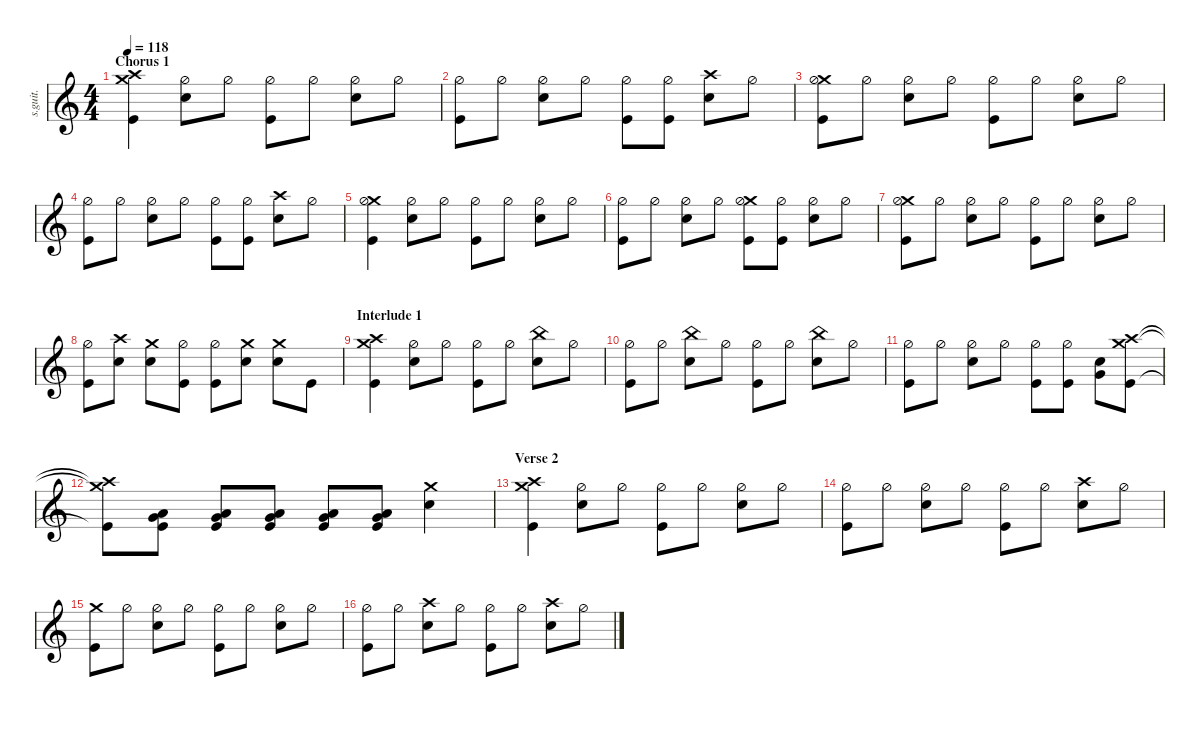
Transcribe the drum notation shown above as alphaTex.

\defaultSystemsLayout 4
\hideDynamics
\bracketExtendMode nobrackets
\track ("Drums [Arin Ilejay]" "s.guit.") {instrument percussion}
\staff {score}
\articulation defaults
\ts (4 4)
\section ("" "Chorus 1")
\tempo 118
\clef g2
\ks c
("Crash high (hit)" "Crash medium (hit)" "Kick (hit)").4{lyrics (0 "") lyrics (1 "") lyrics (2 "") lyrics (3 "") lyrics (4 "") dy f} ("Hi-Hat (half)" "Snare (hit) 2").8{lyrics (0 "") lyrics (1 "") lyrics (2 "") lyrics (3 "") lyrics (4 "")} "Hi-Hat (half)".8{lyrics (0 "") lyrics (1 "") lyrics (2 "") lyrics (3 "") lyrics (4 "")} ("Hi-Hat (half)" "Kick (hit)").8{lyrics (0 "") lyrics (1 "") lyrics (2 "") lyrics (3 "") lyrics (4 "")} "Hi-Hat (half)".8{lyrics (0 "") lyrics (1 "") lyrics (2 "") lyrics (3 "") lyrics (4 "")} ("Hi-Hat (half)" "Snare (hit) 2").8{lyrics (0 "") lyrics (1 "") lyrics (2 "") lyrics (3 "") lyrics (4 "")} "Hi-Hat (half)".8{lyrics (0 "") lyrics (1 "") lyrics (2 "") lyrics (3 "") lyrics (4 "")} |
("Hi-Hat (half)" "Kick (hit)").8{lyrics (0 "") lyrics (1 "") lyrics (2 "") lyrics (3 "") lyrics (4 "")} "Hi-Hat (half)".8{lyrics (0 "") lyrics (1 "") lyrics (2 "") lyrics (3 "") lyrics (4 "")} ("Hi-Hat (half)" "Snare (hit) 2").8{lyrics (0 "") lyrics (1 "") lyrics (2 "") lyrics (3 "") lyrics (4 "")} "Hi-Hat (half)".8{lyrics (0 "") lyrics (1 "") lyrics (2 "") lyrics (3 "") lyrics (4 "")} ("Hi-Hat (half)" "Kick (hit)").8{lyrics (0 "") lyrics (1 "") lyrics (2 "") lyrics (3 "") lyrics (4 "")} ("Hi-Hat (half)" "Kick (hit)").8{lyrics (0 "") lyrics (1 "") lyrics (2 "") lyrics (3 "") lyrics (4 "")} ("Crash high (hit)" "Snare (hit) 2").8{lyrics (0 "") lyrics (1 "") lyrics (2 "") lyrics (3 "") lyrics (4 "")} "Hi-Hat (half)".8{lyrics (0 "") lyrics (1 "") lyrics (2 "") lyrics (3 "") lyrics (4 "")} |
("Crash medium (hit)" "Hi-Hat (half)" "Kick (hit)").8{lyrics (0 "") lyrics (1 "") lyrics (2 "") lyrics (3 "") lyrics (4 "")} "Hi-Hat (half)".8{lyrics (0 "") lyrics (1 "") lyrics (2 "") lyrics (3 "") lyrics (4 "")} ("Hi-Hat (half)" "Snare (hit) 2").8{lyrics (0 "") lyrics (1 "") lyrics (2 "") lyrics (3 "") lyrics (4 "")} "Hi-Hat (half)".8{lyrics (0 "") lyrics (1 "") lyrics (2 "") lyrics (3 "") lyrics (4 "")} ("Hi-Hat (half)" "Kick (hit)").8{lyrics (0 "") lyrics (1 "") lyrics (2 "") lyrics (3 "") lyrics (4 "")} "Hi-Hat (half)".8{lyrics (0 "") lyrics (1 "") lyrics (2 "") lyrics (3 "") lyrics (4 "")} ("Hi-Hat (half)" "Snare (hit) 2").8{lyrics (0 "") lyrics (1 "") lyrics (2 "") lyrics (3 "") lyrics (4 "")} "Hi-Hat (half)".8{lyrics (0 "") lyrics (1 "") lyrics (2 "") lyrics (3 "") lyrics (4 "")} |
("Hi-Hat (half)" "Kick (hit)").8{lyrics (0 "") lyrics (1 "") lyrics (2 "") lyrics (3 "") lyrics (4 "")} "Hi-Hat (half)".8{lyrics (0 "") lyrics (1 "") lyrics (2 "") lyrics (3 "") lyrics (4 "")} ("Hi-Hat (half)" "Snare (hit) 2").8{lyrics (0 "") lyrics (1 "") lyrics (2 "") lyrics (3 "") lyrics (4 "")} "Hi-Hat (half)".8{lyrics (0 "") lyrics (1 "") lyrics (2 "") lyrics (3 "") lyrics (4 "")} ("Hi-Hat (half)" "Kick (hit)").8{lyrics (0 "") lyrics (1 "") lyrics (2 "") lyrics (3 "") lyrics (4 "")} ("Hi-Hat (half)" "Kick (hit)").8{lyrics (0 "") lyrics (1 "") lyrics (2 "") lyrics (3 "") lyrics (4 "")} ("Crash high (hit)" "Snare (hit) 2").8{lyrics (0 "") lyrics (1 "") lyrics (2 "") lyrics (3 "") lyrics (4 "")} "Hi-Hat (half)".8{lyrics (0 "") lyrics (1 "") lyrics (2 "") lyrics (3 "") lyrics (4 "")} |
("Crash medium (hit)" "Hi-Hat (half)" "Kick (hit)").4{lyrics (0 "") lyrics (1 "") lyrics (2 "") lyrics (3 "") lyrics (4 "")} ("Hi-Hat (half)" "Snare (hit) 2").8{lyrics (0 "") lyrics (1 "") lyrics (2 "") lyrics (3 "") lyrics (4 "")} "Hi-Hat (half)".8{lyrics (0 "") lyrics (1 "") lyrics (2 "") lyrics (3 "") lyrics (4 "")} ("Hi-Hat (half)" "Kick (hit)").8{lyrics (0 "") lyrics (1 "") lyrics (2 "") lyrics (3 "") lyrics (4 "")} "Hi-Hat (half)".8{lyrics (0 "") lyrics (1 "") lyrics (2 "") lyrics (3 "") lyrics (4 "")} ("Hi-Hat (half)" "Snare (hit) 2").8{lyrics (0 "") lyrics (1 "") lyrics (2 "") lyrics (3 "") lyrics (4 "")} "Hi-Hat (half)".8{lyrics (0 "") lyrics (1 "") lyrics (2 "") lyrics (3 "") lyrics (4 "")} |
("Hi-Hat (half)" "Kick (hit)").8{lyrics (0 "") lyrics (1 "") lyrics (2 "") lyrics (3 "") lyrics (4 "")} "Hi-Hat (half)".8{lyrics (0 "") lyrics (1 "") lyrics (2 "") lyrics (3 "") lyrics (4 "")} ("Hi-Hat (half)" "Snare (hit) 2").8{lyrics (0 "") lyrics (1 "") lyrics (2 "") lyrics (3 "") lyrics (4 "")} "Hi-Hat (half)".8{lyrics (0 "") lyrics (1 "") lyrics (2 "") lyrics (3 "") lyrics (4 "")} ("Crash medium (hit)" "Hi-Hat (half)" "Kick (hit)").8{lyrics (0 "") lyrics (1 "") lyrics (2 "") lyrics (3 "") lyrics (4 "")} ("Hi-Hat (half)" "Kick (hit)").8{lyrics (0 "") lyrics (1 "") lyrics (2 "") lyrics (3 "") lyrics (4 "")} ("Hi-Hat (half)" "Snare (hit) 2").8{lyrics (0 "") lyrics (1 "") lyrics (2 "") lyrics (3 "") lyrics (4 "")} "Hi-Hat (half)".8{lyrics (0 "") lyrics (1 "") lyrics (2 "") lyrics (3 "") lyrics (4 "")} |
("Crash medium (hit)" "Hi-Hat (half)" "Kick (hit)").8{lyrics (0 "") lyrics (1 "") lyrics (2 "") lyrics (3 "") lyrics (4 "")} "Hi-Hat (half)".8{lyrics (0 "") lyrics (1 "") lyrics (2 "") lyrics (3 "") lyrics (4 "")} ("Hi-Hat (half)" "Snare (hit) 2").8{lyrics (0 "") lyrics (1 "") lyrics (2 "") lyrics (3 "") lyrics (4 "")} "Hi-Hat (half)".8{lyrics (0 "") lyrics (1 "") lyrics (2 "") lyrics (3 "") lyrics (4 "")} ("Hi-Hat (half)" "Kick (hit)").8{lyrics (0 "") lyrics (1 "") lyrics (2 "") lyrics (3 "") lyrics (4 "")} "Hi-Hat (half)".8{lyrics (0 "") lyrics (1 "") lyrics (2 "") lyrics (3 "") lyrics (4 "")} ("Hi-Hat (half)" "Snare (hit) 2").8{lyrics (0 "") lyrics (1 "") lyrics (2 "") lyrics (3 "") lyrics (4 "")} "Hi-Hat (half)".8{lyrics (0 "") lyrics (1 "") lyrics (2 "") lyrics (3 "") lyrics (4 "")} |
("Hi-Hat (half)" "Kick (hit)").8{lyrics (0 "") lyrics (1 "") lyrics (2 "") lyrics (3 "") lyrics (4 "")} ("Crash high (hit)" "Snare (hit) 2").8{lyrics (0 "") lyrics (1 "") lyrics (2 "") lyrics (3 "") lyrics (4 "")} ("Crash medium (hit)" "Snare (hit) 2").8{lyrics (0 "") lyrics (1 "") lyrics (2 "") lyrics (3 "") lyrics (4 "")} ("Hi-Hat (half)" "Kick (hit)").8{lyrics (0 "") lyrics (1 "") lyrics (2 "") lyrics (3 "") lyrics (4 "")} ("Hi-Hat (half)" "Kick (hit)").8{lyrics (0 "") lyrics (1 "") lyrics (2 "") lyrics (3 "") lyrics (4 "")} ("Crash medium (hit)" "Snare (hit) 2").8{lyrics (0 "") lyrics (1 "") lyrics (2 "") lyrics (3 "") lyrics (4 "")} ("Crash medium (hit)" "Snare (hit) 2").8{lyrics (0 "") lyrics (1 "") lyrics (2 "") lyrics (3 "") lyrics (4 "")} "Kick (hit)".8{lyrics (0 "") lyrics (1 "") lyrics (2 "") lyrics (3 "") lyrics (4 "")} |
\section ("" "Interlude 1")
("Crash high (hit)" "Crash medium (hit)" "Kick (hit)").4{lyrics (0 "") lyrics (1 "") lyrics (2 "") lyrics (3 "") lyrics (4 "")} ("Hi-Hat (half)" "Snare (hit) 2").8{lyrics (0 "") lyrics (1 "") lyrics (2 "") lyrics (3 "") lyrics (4 "")} "Hi-Hat (half)".8{lyrics (0 "") lyrics (1 "") lyrics (2 "") lyrics (3 "") lyrics (4 "")} ("Hi-Hat (half)" "Kick (hit)").8{lyrics (0 "") lyrics (1 "") lyrics (2 "") lyrics (3 "") lyrics (4 "")} "Hi-Hat (half)".8{lyrics (0 "") lyrics (1 "") lyrics (2 "") lyrics (3 "") lyrics (4 "")} ("China (hit)" "Snare (hit) 2").8{lyrics (0 "") lyrics (1 "") lyrics (2 "") lyrics (3 "") lyrics (4 "")} "Hi-Hat (half)".8{lyrics (0 "") lyrics (1 "") lyrics (2 "") lyrics (3 "") lyrics (4 "")} |
("Hi-Hat (half)" "Kick (hit)").8{lyrics (0 "") lyrics (1 "") lyrics (2 "") lyrics (3 "") lyrics (4 "")} "Hi-Hat (half)".8{lyrics (0 "") lyrics (1 "") lyrics (2 "") lyrics (3 "") lyrics (4 "")} ("China (hit)" "Snare (hit) 2").8{lyrics (0 "") lyrics (1 "") lyrics (2 "") lyrics (3 "") lyrics (4 "")} "Hi-Hat (half)".8{lyrics (0 "") lyrics (1 "") lyrics (2 "") lyrics (3 "") lyrics (4 "")} ("Hi-Hat (half)" "Kick (hit)").8{lyrics (0 "") lyrics (1 "") lyrics (2 "") lyrics (3 "") lyrics (4 "")} "Hi-Hat (half)".8{lyrics (0 "") lyrics (1 "") lyrics (2 "") lyrics (3 "") lyrics (4 "")} ("China (hit)" "Snare (hit) 2").8{lyrics (0 "") lyrics (1 "") lyrics (2 "") lyrics (3 "") lyrics (4 "")} "Hi-Hat (half)".8{lyrics (0 "") lyrics (1 "") lyrics (2 "") lyrics (3 "") lyrics (4 "")} |
("Hi-Hat (half)" "Kick (hit)").8{lyrics (0 "") lyrics (1 "") lyrics (2 "") lyrics (3 "") lyrics (4 "")} "Hi-Hat (half)".8{lyrics (0 "") lyrics (1 "") lyrics (2 "") lyrics (3 "") lyrics (4 "")} ("Hi-Hat (half)" "Snare (hit) 2").8{lyrics (0 "") lyrics (1 "") lyrics (2 "") lyrics (3 "") lyrics (4 "")} "Hi-Hat (half)".8{lyrics (0 "") lyrics (1 "") lyrics (2 "") lyrics (3 "") lyrics (4 "")} ("Hi-Hat (half)" "Kick (hit)").8{lyrics (0 "") lyrics (1 "") lyrics (2 "") lyrics (3 "") lyrics (4 "")} ("Hi-Hat (half)" "Kick (hit)").8{lyrics (0 "") lyrics (1 "") lyrics (2 "") lyrics (3 "") lyrics (4 "")} ("Snare (hit) 2" "Very Low Tom (hit)").8{lyrics (0 "") lyrics (1 "") lyrics (2 "") lyrics (3 "") lyrics (4 "")} ("Crash high (hit)" "Crash medium (hit)" "Kick (hit)").8{lyrics (0 "") lyrics (1 "") lyrics (2 "") lyrics (3 "") lyrics (4 "")} |
("Crash high (hit)"{t} "Crash medium (hit)"{t} "Kick (hit)"{t}).8{lyrics (0 "") lyrics (1 "") lyrics (2 "") lyrics (3 "") lyrics (4 "")} ("Low Tom (hit)" "Very Low Tom (hit)" "Kick (hit)").8{lyrics (0 "") lyrics (1 "") lyrics (2 "") lyrics (3 "") lyrics (4 "") dy mp} ("Low Tom (hit)" "Very Low Tom (hit)" "Kick (hit)").8{lyrics (0 "") lyrics (1 "") lyrics (2 "") lyrics (3 "") lyrics (4 "")} ("Low Tom (hit)" "Very Low Tom (hit)" "Kick (hit)").8{lyrics (0 "") lyrics (1 "") lyrics (2 "") lyrics (3 "") lyrics (4 "")} ("Low Tom (hit)" "Very Low Tom (hit)" "Kick (hit)").8{lyrics (0 "") lyrics (1 "") lyrics (2 "") lyrics (3 "") lyrics (4 "")} ("Low Tom (hit)" "Very Low Tom (hit)" "Kick (hit)").8{lyrics (0 "") lyrics (1 "") lyrics (2 "") lyrics (3 "") lyrics (4 "")} ("Crash medium (hit)" "Snare (hit) 2").4{lyrics (0 "") lyrics (1 "") lyrics (2 "") lyrics (3 "") lyrics (4 "") dy f} |
\section ("" "Verse 2")
("Crash high (hit)" "Crash medium (hit)" "Kick (hit)").4{lyrics (0 "") lyrics (1 "") lyrics (2 "") lyrics (3 "") lyrics (4 "")} ("Hi-Hat (half)" "Snare (hit) 2").8{lyrics (0 "") lyrics (1 "") lyrics (2 "") lyrics (3 "") lyrics (4 "")} "Hi-Hat (half)".8{lyrics (0 "") lyrics (1 "") lyrics (2 "") lyrics (3 "") lyrics (4 "")} ("Hi-Hat (half)" "Kick (hit)").8{lyrics (0 "") lyrics (1 "") lyrics (2 "") lyrics (3 "") lyrics (4 "")} "Hi-Hat (half)".8{lyrics (0 "") lyrics (1 "") lyrics (2 "") lyrics (3 "") lyrics (4 "")} ("Hi-Hat (half)" "Snare (hit) 2").8{lyrics (0 "") lyrics (1 "") lyrics (2 "") lyrics (3 "") lyrics (4 "")} "Hi-Hat (half)".8{lyrics (0 "") lyrics (1 "") lyrics (2 "") lyrics (3 "") lyrics (4 "")} |
("Hi-Hat (half)" "Kick (hit)").8{lyrics (0 "") lyrics (1 "") lyrics (2 "") lyrics (3 "") lyrics (4 "")} "Hi-Hat (half)".8{lyrics (0 "") lyrics (1 "") lyrics (2 "") lyrics (3 "") lyrics (4 "")} ("Hi-Hat (half)" "Snare (hit) 2").8{lyrics (0 "") lyrics (1 "") lyrics (2 "") lyrics (3 "") lyrics (4 "")} "Hi-Hat (half)".8{lyrics (0 "") lyrics (1 "") lyrics (2 "") lyrics (3 "") lyrics (4 "")} ("Hi-Hat (half)" "Kick (hit)").8{lyrics (0 "") lyrics (1 "") lyrics (2 "") lyrics (3 "") lyrics (4 "")} "Hi-Hat (half)".8{lyrics (0 "") lyrics (1 "") lyrics (2 "") lyrics (3 "") lyrics (4 "")} ("Crash high (hit)" "Snare (hit) 2").8{lyrics (0 "") lyrics (1 "") lyrics (2 "") lyrics (3 "") lyrics (4 "")} "Hi-Hat (half)".8{lyrics (0 "") lyrics (1 "") lyrics (2 "") lyrics (3 "") lyrics (4 "")} |
("Crash medium (hit)" "Kick (hit)").8{lyrics (0 "") lyrics (1 "") lyrics (2 "") lyrics (3 "") lyrics (4 "")} "Hi-Hat (half)".8{lyrics (0 "") lyrics (1 "") lyrics (2 "") lyrics (3 "") lyrics (4 "")} ("Hi-Hat (half)" "Snare (hit) 2").8{lyrics (0 "") lyrics (1 "") lyrics (2 "") lyrics (3 "") lyrics (4 "")} "Hi-Hat (half)".8{lyrics (0 "") lyrics (1 "") lyrics (2 "") lyrics (3 "") lyrics (4 "")} ("Hi-Hat (half)" "Kick (hit)").8{lyrics (0 "") lyrics (1 "") lyrics (2 "") lyrics (3 "") lyrics (4 "")} "Hi-Hat (half)".8{lyrics (0 "") lyrics (1 "") lyrics (2 "") lyrics (3 "") lyrics (4 "")} ("Hi-Hat (half)" "Snare (hit) 2").8{lyrics (0 "") lyrics (1 "") lyrics (2 "") lyrics (3 "") lyrics (4 "")} "Hi-Hat (half)".8{lyrics (0 "") lyrics (1 "") lyrics (2 "") lyrics (3 "") lyrics (4 "")} |
("Hi-Hat (half)" "Kick (hit)").8{lyrics (0 "") lyrics (1 "") lyrics (2 "") lyrics (3 "") lyrics (4 "")} "Hi-Hat (half)".8{lyrics (0 "") lyrics (1 "") lyrics (2 "") lyrics (3 "") lyrics (4 "")} ("Crash high (hit)" "Snare (hit) 2").8{lyrics (0 "") lyrics (1 "") lyrics (2 "") lyrics (3 "") lyrics (4 "")} "Hi-Hat (half)".8{lyrics (0 "") lyrics (1 "") lyrics (2 "") lyrics (3 "") lyrics (4 "")} ("Hi-Hat (half)" "Kick (hit)").8{lyrics (0 "") lyrics (1 "") lyrics (2 "") lyrics (3 "") lyrics (4 "")} "Hi-Hat (half)".8{lyrics (0 "") lyrics (1 "") lyrics (2 "") lyrics (3 "") lyrics (4 "")} ("Crash high (hit)" "Snare (hit) 2").8{lyrics (0 "") lyrics (1 "") lyrics (2 "") lyrics (3 "") lyrics (4 "")} "Hi-Hat (half)".8{lyrics (0 "") lyrics (1 "") lyrics (2 "") lyrics (3 "") lyrics (4 "")}
